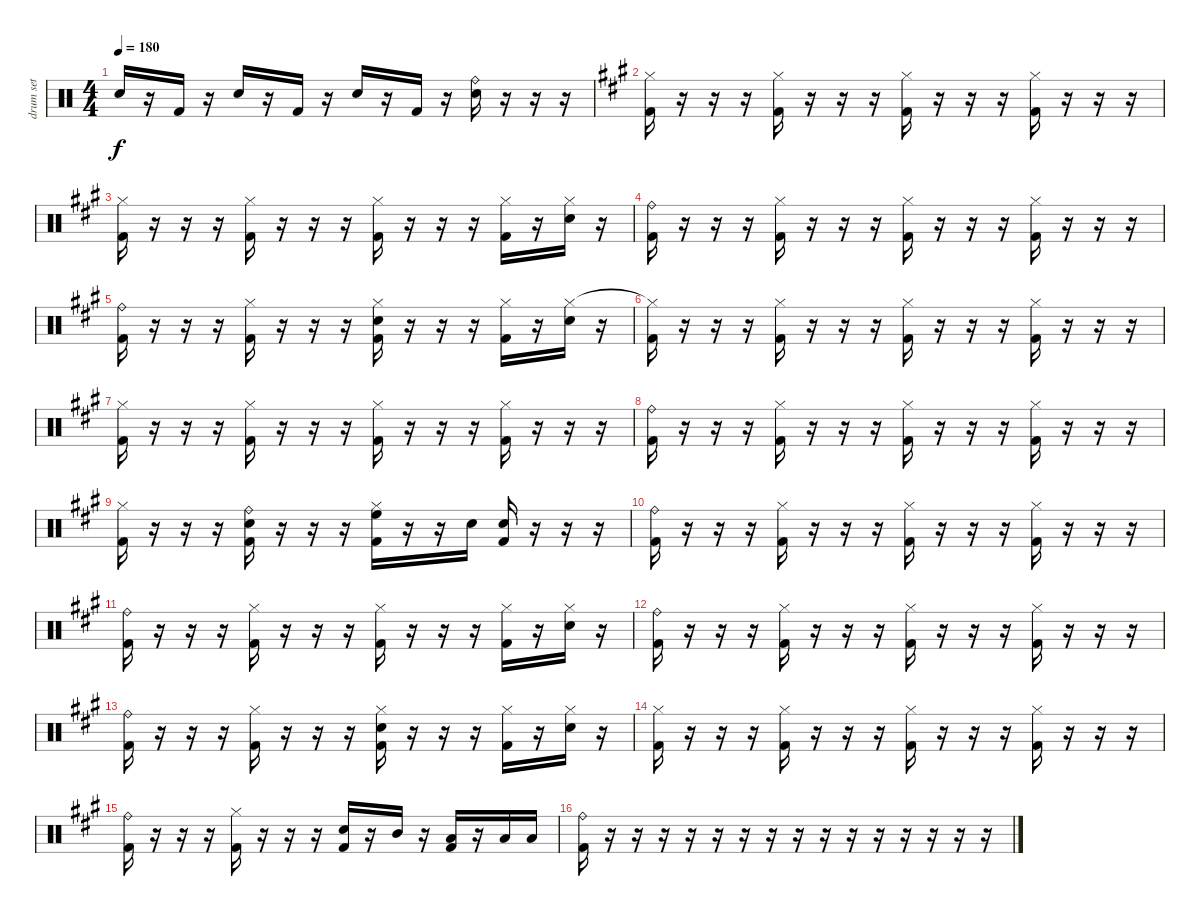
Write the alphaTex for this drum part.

\track ("drum set" "drum set") {instrument percussion}
\staff {score}
\articulation defaults
\ts (4 4)
\tempo 180
\clef neutral
\ks c "Snare (hit) 2".16{dy f}
r.16 "Kick (hit) 2".16 r.16 "Snare (hit) 2".16 r.16 "Kick (hit) 2".16 r.16 "Snare (hit) 2".16 r.16 "Kick (hit) 2".16 r.16 ("Ride (bell)" "Snare (hit) 2").16 r.16 r.16 r.16 |
\ks a
("Hi-Hat (closed)" "Kick (hit) 2").16 r.16 r.16 r.16 ("Hi-Hat (closed)" "Kick (hit) 2").16 r.16 r.16 r.16 ("Hi-Hat (closed)" "Kick (hit) 2").16 r.16 r.16 r.16 ("Hi-Hat (closed)" "Kick (hit) 2").16 r.16 r.16 r.16 |
("Hi-Hat (closed)" "Kick (hit) 2").16 r.16 r.16 r.16 ("Hi-Hat (closed)" "Kick (hit) 2").16 r.16 r.16 r.16 ("Hi-Hat (closed)" "Kick (hit) 2").16 r.16 r.16 r.16 ("Hi-Hat (closed)" "Kick (hit) 2").16 r.16 ("Hi-Hat (closed)" "Snare (hit) 2").16 r.16 |
("Ride (bell)" "Kick (hit) 2").16 r.16 r.16 r.16 ("Hi-Hat (closed)" "Kick (hit) 2").16 r.16 r.16 r.16 ("Hi-Hat (closed)" "Kick (hit) 2").16 r.16 r.16 r.16 ("Hi-Hat (closed)" "Kick (hit) 2").16 r.16 r.16 r.16 |
("Ride (bell)" "Kick (hit) 2").16 r.16 r.16 r.16 ("Hi-Hat (closed)" "Kick (hit) 2").16 r.16 r.16 r.16 ("Hi-Hat (closed)" "Kick (hit) 2" "Snare (hit) 2").16 r.16 r.16 r.16 ("Hi-Hat (closed)" "Kick (hit) 2").16 r.16 ("Hi-Hat (closed)" "Snare (hit) 2").16 r.16 |
("Hi-Hat (closed)"{t} "Kick (hit) 2").16 r.16 r.16 r.16 ("Hi-Hat (closed)" "Kick (hit) 2").16 r.16 r.16 r.16 ("Hi-Hat (closed)" "Kick (hit) 2").16 r.16 r.16 r.16 ("Hi-Hat (closed)" "Kick (hit) 2").16 r.16 r.16 r.16 |
("Hi-Hat (closed)" "Kick (hit) 2").16 r.16 r.16 r.16 ("Hi-Hat (closed)" "Kick (hit) 2").16 r.16 r.16 r.16 ("Hi-Hat (closed)" "Kick (hit) 2").16 r.16 r.16 r.16 ("Hi-Hat (closed)" "Kick (hit) 2").16 r.16 r.16 r.16 |
("Ride (bell)" "Kick (hit) 2").16 r.16 r.16 r.16 ("Hi-Hat (closed)" "Kick (hit) 2").16 r.16 r.16 r.16 ("Hi-Hat (closed)" "Kick (hit) 2").16 r.16 r.16 r.16 ("Hi-Hat (closed)" "Kick (hit) 2").16 r.16 r.16 r.16 |
("Hi-Hat (closed)" "Kick (hit) 2").16 r.16 r.16 r.16 ("Ride (bell)" "Kick (hit) 2" "Snare (hit) 2").16 r.16 r.16 r.16 ("Hi-Hat (closed)" "Kick (hit) 2" "High Floor Tom (hit)").16 r.16 r.16 "Snare (hit) 2".16 ("Snare (hit) 2" "Kick (hit) 2").16 r.16 r.16 r.16 |
("Ride (bell)" "Kick (hit) 2").16 r.16 r.16 r.16 ("Hi-Hat (closed)" "Kick (hit) 2").16 r.16 r.16 r.16 ("Hi-Hat (closed)" "Kick (hit) 2").16 r.16 r.16 r.16 ("Hi-Hat (closed)" "Kick (hit) 2").16 r.16 r.16 r.16 |
("Ride (bell)" "Kick (hit) 2").16 r.16 r.16 r.16 ("Hi-Hat (closed)" "Kick (hit) 2").16 r.16 r.16 r.16 ("Hi-Hat (closed)" "Kick (hit) 2").16 r.16 r.16 r.16 ("Hi-Hat (closed)" "Kick (hit) 2").16 r.16 ("Hi-Hat (closed)" "Snare (hit) 2").16 r.16 |
("Ride (bell)" "Kick (hit) 2").16 r.16 r.16 r.16 ("Hi-Hat (closed)" "Kick (hit) 2").16 r.16 r.16 r.16 ("Hi-Hat (closed)" "Kick (hit) 2").16 r.16 r.16 r.16 ("Hi-Hat (closed)" "Kick (hit) 2").16 r.16 r.16 r.16 |
("Ride (bell)" "Kick (hit) 2").16 r.16 r.16 r.16 ("Hi-Hat (closed)" "Kick (hit) 2").16 r.16 r.16 r.16 ("Hi-Hat (closed)" "Kick (hit) 2" "Snare (hit) 2").16 r.16 r.16 r.16 ("Hi-Hat (closed)" "Kick (hit) 2").16 r.16 ("Hi-Hat (closed)" "Snare (hit) 2").16 r.16 |
("Hi-Hat (closed)" "Kick (hit) 2").16 r.16 r.16 r.16 ("Hi-Hat (closed)" "Kick (hit) 2").16 r.16 r.16 r.16 ("Hi-Hat (closed)" "Kick (hit) 2").16 r.16 r.16 r.16 ("Hi-Hat (closed)" "Kick (hit) 2").16 r.16 r.16 r.16 |
("Ride (bell)" "Kick (hit) 2").16 r.16 r.16 r.16 ("Hi-Hat (closed)" "Kick (hit) 2").16 r.16 r.16 r.16 ("Snare (hit) 2" "Kick (hit) 2").16 r.16 "Mid Tom (hit)".16 r.16 ("Low Tom (hit)" "Kick (hit) 2").16 r.16 "Low Tom (hit)".16 "Low Tom (hit)".16 |
("Ride (bell)" "Kick (hit) 2").16 r.16 r.16 r.16 r.16 r.16 r.16 r.16 r.16 r.16 r.16 r.16 r.16 r.16 r.16 r.16
